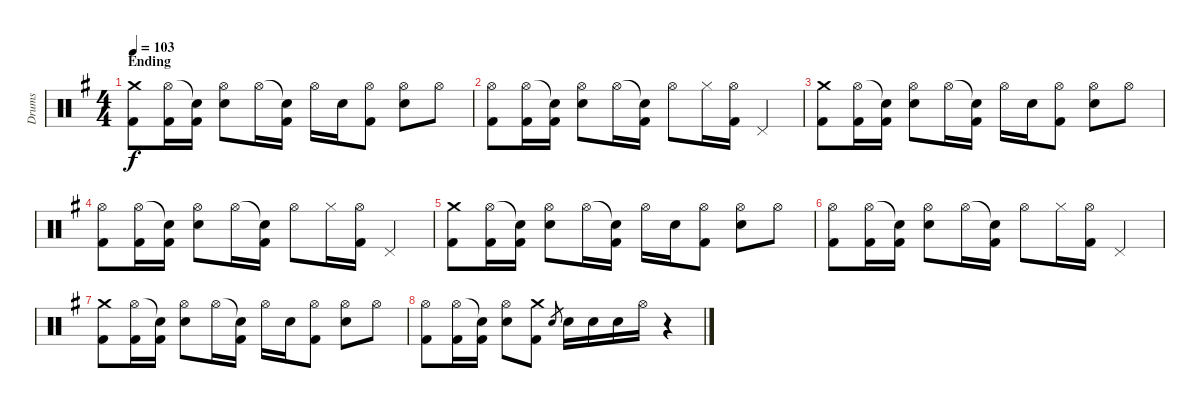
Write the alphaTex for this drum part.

\track ("Drums" "Drums") {instrument percussion}
\staff {score}
\articulation defaults
\ts (4 4)
\section ("" "Ending")
\tempo 103
\clef neutral
\ks eminor
("Crash medium (hit)" "Kick (hit) 2").8{dy f} ("Hi-Hat (open)" "Kick (hit) 2").16 ("Snare (hit)"{t} "Kick (hit) 2").16 ("Hi-Hat (open)" "Electric Snare (hit)").8 "Hi-Hat (open)".16 ("Snare (hit)"{t} "Kick (hit) 2").16 "Hi-Hat (open)".16 "Electric Snare (hit)".16 ("Hi-Hat (open)" "Kick (hit) 2").8 ("Hi-Hat (open)" "Electric Snare (hit)").8 "Hi-Hat (open)".8 |
("Hi-Hat (open)" "Kick (hit) 2").8 ("Hi-Hat (open)" "Kick (hit) 2").16 ("Snare (hit)"{t} "Kick (hit) 2").16 ("Hi-Hat (open)" "Electric Snare (hit)").8 "Hi-Hat (open)".16 ("Snare (hit)"{t} "Kick (hit) 2").16 "Hi-Hat (open)".8 "Hi-Hat (closed)".16 ("Hi-Hat (open)" "Kick (hit) 2").16 "Pedal Hi-Hat (hit)".4 |
("Crash medium (hit)" "Kick (hit) 2").8 ("Hi-Hat (open)" "Kick (hit) 2").16 ("Snare (hit)"{t} "Kick (hit) 2").16 ("Hi-Hat (open)" "Electric Snare (hit)").8 "Hi-Hat (open)".16 ("Snare (hit)"{t} "Kick (hit) 2").16 "Hi-Hat (open)".16 "Electric Snare (hit)".16 ("Hi-Hat (open)" "Kick (hit) 2").8 ("Hi-Hat (open)" "Electric Snare (hit)").8 "Hi-Hat (open)".8 |
("Hi-Hat (open)" "Kick (hit) 2").8 ("Hi-Hat (open)" "Kick (hit) 2").16 ("Snare (hit)"{t} "Kick (hit) 2").16 ("Hi-Hat (open)" "Electric Snare (hit)").8 "Hi-Hat (open)".16 ("Snare (hit)"{t} "Kick (hit) 2").16 "Hi-Hat (open)".8 "Hi-Hat (closed)".16 ("Hi-Hat (open)" "Kick (hit) 2").16 "Pedal Hi-Hat (hit)".4 |
("Crash medium (hit)" "Kick (hit) 2").8 ("Hi-Hat (open)" "Kick (hit) 2").16 ("Snare (hit)"{t} "Kick (hit) 2").16 ("Hi-Hat (open)" "Electric Snare (hit)").8 "Hi-Hat (open)".16 ("Snare (hit)"{t} "Kick (hit) 2").16 "Hi-Hat (open)".16 "Electric Snare (hit)".16 ("Hi-Hat (open)" "Kick (hit) 2").8 ("Hi-Hat (open)" "Electric Snare (hit)").8 "Hi-Hat (open)".8 |
("Hi-Hat (open)" "Kick (hit) 2").8 ("Hi-Hat (open)" "Kick (hit) 2").16 ("Snare (hit)"{t} "Kick (hit) 2").16 ("Hi-Hat (open)" "Electric Snare (hit)").8 "Hi-Hat (open)".16 ("Snare (hit)"{t} "Kick (hit) 2").16 "Hi-Hat (open)".8 "Hi-Hat (closed)".16 ("Hi-Hat (open)" "Kick (hit) 2").16 "Pedal Hi-Hat (hit)".4 |
("Crash medium (hit)" "Kick (hit) 2").8 ("Hi-Hat (open)" "Kick (hit) 2").16 ("Snare (hit)"{t} "Kick (hit) 2").16 ("Hi-Hat (open)" "Electric Snare (hit)").8 "Hi-Hat (open)".16 ("Snare (hit)"{t} "Kick (hit) 2").16 "Hi-Hat (open)".16 "Electric Snare (hit)".16 ("Hi-Hat (open)" "Kick (hit) 2").8 ("Hi-Hat (open)" "Electric Snare (hit)").8 "Hi-Hat (open)".8 |
("Hi-Hat (open)" "Kick (hit) 2").8 ("Hi-Hat (open)" "Kick (hit) 2").16 ("Snare (hit)"{t} "Kick (hit) 2").16 ("Hi-Hat (open)" "Electric Snare (hit)").8 ("Crash medium (hit)" "Kick (hit) 2").8 "Electric Snare (hit)".8{gr} "Electric Snare (hit)".16 "Electric Snare (hit)".16 "Electric Snare (hit)".16 "Hi-Hat (open)".16 r.4
